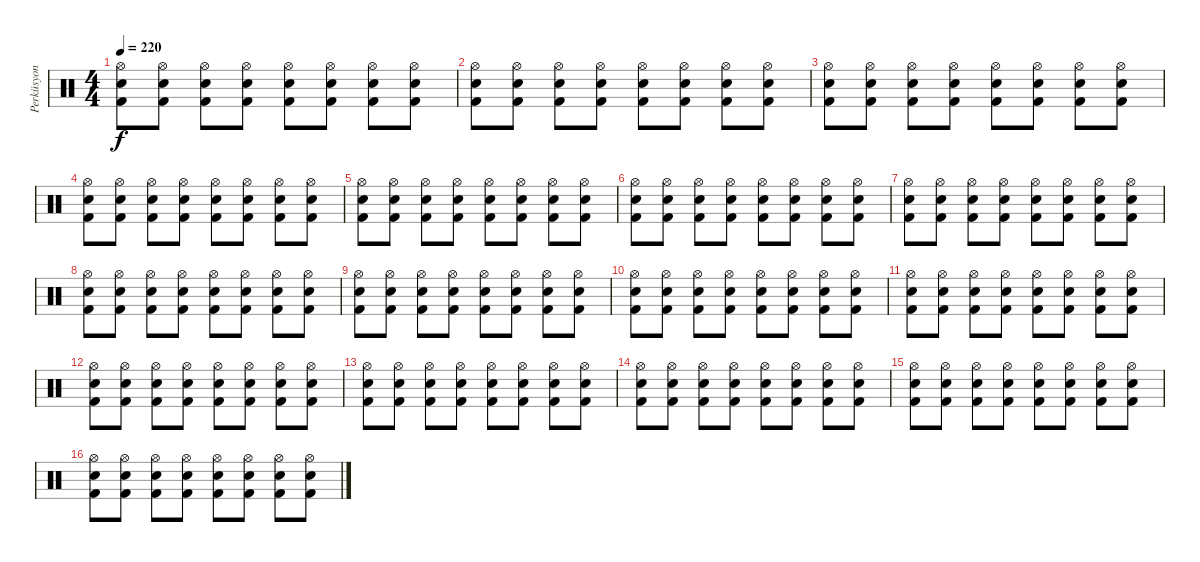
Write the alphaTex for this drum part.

\track ("Perküsyon" "Perküsyon") {instrument percussion}
\staff {score}
\articulation defaults
\ts (4 4)
\tempo 220
\clef neutral
\ks c
("Hi-Hat (open)" "Electric Snare (hit)" "Kick (hit) 2").8{dy f} ("Hi-Hat (open)" "Electric Snare (hit)" "Kick (hit) 2").8 ("Hi-Hat (open)" "Electric Snare (hit)" "Kick (hit) 2").8 ("Hi-Hat (open)" "Electric Snare (hit)" "Kick (hit) 2").8 ("Hi-Hat (open)" "Electric Snare (hit)" "Kick (hit) 2").8 ("Hi-Hat (open)" "Electric Snare (hit)" "Kick (hit) 2").8 ("Hi-Hat (open)" "Electric Snare (hit)" "Kick (hit) 2").8 ("Hi-Hat (open)" "Electric Snare (hit)" "Kick (hit) 2").8 |
("Hi-Hat (open)" "Electric Snare (hit)" "Kick (hit) 2").8 ("Hi-Hat (open)" "Electric Snare (hit)" "Kick (hit) 2").8 ("Hi-Hat (open)" "Electric Snare (hit)" "Kick (hit) 2").8 ("Hi-Hat (open)" "Electric Snare (hit)" "Kick (hit) 2").8 ("Hi-Hat (open)" "Electric Snare (hit)" "Kick (hit) 2").8 ("Hi-Hat (open)" "Electric Snare (hit)" "Kick (hit) 2").8 ("Hi-Hat (open)" "Electric Snare (hit)" "Kick (hit) 2").8 ("Hi-Hat (open)" "Electric Snare (hit)" "Kick (hit) 2").8 |
("Hi-Hat (open)" "Electric Snare (hit)" "Kick (hit) 2").8 ("Hi-Hat (open)" "Electric Snare (hit)" "Kick (hit) 2").8 ("Hi-Hat (open)" "Electric Snare (hit)" "Kick (hit) 2").8 ("Hi-Hat (open)" "Electric Snare (hit)" "Kick (hit) 2").8 ("Hi-Hat (open)" "Electric Snare (hit)" "Kick (hit) 2").8 ("Hi-Hat (open)" "Electric Snare (hit)" "Kick (hit) 2").8 ("Hi-Hat (open)" "Electric Snare (hit)" "Kick (hit) 2").8 ("Hi-Hat (open)" "Electric Snare (hit)" "Kick (hit) 2").8 |
("Hi-Hat (open)" "Electric Snare (hit)" "Kick (hit) 2").8 ("Hi-Hat (open)" "Electric Snare (hit)" "Kick (hit) 2").8 ("Hi-Hat (open)" "Electric Snare (hit)" "Kick (hit) 2").8 ("Hi-Hat (open)" "Electric Snare (hit)" "Kick (hit) 2").8 ("Hi-Hat (open)" "Electric Snare (hit)" "Kick (hit) 2").8 ("Hi-Hat (open)" "Electric Snare (hit)" "Kick (hit) 2").8 ("Hi-Hat (open)" "Electric Snare (hit)" "Kick (hit) 2").8 ("Hi-Hat (open)" "Electric Snare (hit)" "Kick (hit) 2").8 |
("Hi-Hat (open)" "Electric Snare (hit)" "Kick (hit) 2").8 ("Hi-Hat (open)" "Electric Snare (hit)" "Kick (hit) 2").8 ("Hi-Hat (open)" "Electric Snare (hit)" "Kick (hit) 2").8 ("Hi-Hat (open)" "Electric Snare (hit)" "Kick (hit) 2").8 ("Hi-Hat (open)" "Electric Snare (hit)" "Kick (hit) 2").8 ("Hi-Hat (open)" "Electric Snare (hit)" "Kick (hit) 2").8 ("Hi-Hat (open)" "Electric Snare (hit)" "Kick (hit) 2").8 ("Hi-Hat (open)" "Electric Snare (hit)" "Kick (hit) 2").8 |
("Hi-Hat (open)" "Electric Snare (hit)" "Kick (hit) 2").8 ("Hi-Hat (open)" "Electric Snare (hit)" "Kick (hit) 2").8 ("Hi-Hat (open)" "Electric Snare (hit)" "Kick (hit) 2").8 ("Hi-Hat (open)" "Electric Snare (hit)" "Kick (hit) 2").8 ("Hi-Hat (open)" "Electric Snare (hit)" "Kick (hit) 2").8 ("Hi-Hat (open)" "Electric Snare (hit)" "Kick (hit) 2").8 ("Hi-Hat (open)" "Electric Snare (hit)" "Kick (hit) 2").8 ("Hi-Hat (open)" "Electric Snare (hit)" "Kick (hit) 2").8 |
("Hi-Hat (open)" "Electric Snare (hit)" "Kick (hit) 2").8 ("Hi-Hat (open)" "Electric Snare (hit)" "Kick (hit) 2").8 ("Hi-Hat (open)" "Electric Snare (hit)" "Kick (hit) 2").8 ("Hi-Hat (open)" "Electric Snare (hit)" "Kick (hit) 2").8 ("Hi-Hat (open)" "Electric Snare (hit)" "Kick (hit) 2").8 ("Hi-Hat (open)" "Electric Snare (hit)" "Kick (hit) 2").8 ("Hi-Hat (open)" "Electric Snare (hit)" "Kick (hit) 2").8 ("Hi-Hat (open)" "Electric Snare (hit)" "Kick (hit) 2").8 |
("Hi-Hat (open)" "Electric Snare (hit)" "Kick (hit) 2").8 ("Hi-Hat (open)" "Electric Snare (hit)" "Kick (hit) 2").8 ("Hi-Hat (open)" "Electric Snare (hit)" "Kick (hit) 2").8 ("Hi-Hat (open)" "Electric Snare (hit)" "Kick (hit) 2").8 ("Hi-Hat (open)" "Electric Snare (hit)" "Kick (hit) 2").8 ("Hi-Hat (open)" "Electric Snare (hit)" "Kick (hit) 2").8 ("Hi-Hat (open)" "Electric Snare (hit)" "Kick (hit) 2").8 ("Hi-Hat (open)" "Electric Snare (hit)" "Kick (hit) 2").8 |
("Hi-Hat (open)" "Electric Snare (hit)" "Kick (hit) 2").8 ("Hi-Hat (open)" "Electric Snare (hit)" "Kick (hit) 2").8 ("Hi-Hat (open)" "Electric Snare (hit)" "Kick (hit) 2").8 ("Hi-Hat (open)" "Electric Snare (hit)" "Kick (hit) 2").8 ("Hi-Hat (open)" "Electric Snare (hit)" "Kick (hit) 2").8 ("Hi-Hat (open)" "Electric Snare (hit)" "Kick (hit) 2").8 ("Hi-Hat (open)" "Electric Snare (hit)" "Kick (hit) 2").8 ("Hi-Hat (open)" "Electric Snare (hit)" "Kick (hit) 2").8 |
("Hi-Hat (open)" "Electric Snare (hit)" "Kick (hit) 2").8 ("Hi-Hat (open)" "Electric Snare (hit)" "Kick (hit) 2").8 ("Hi-Hat (open)" "Electric Snare (hit)" "Kick (hit) 2").8 ("Hi-Hat (open)" "Electric Snare (hit)" "Kick (hit) 2").8 ("Hi-Hat (open)" "Electric Snare (hit)" "Kick (hit) 2").8 ("Hi-Hat (open)" "Electric Snare (hit)" "Kick (hit) 2").8 ("Hi-Hat (open)" "Electric Snare (hit)" "Kick (hit) 2").8 ("Hi-Hat (open)" "Electric Snare (hit)" "Kick (hit) 2").8 |
("Hi-Hat (open)" "Electric Snare (hit)" "Kick (hit) 2").8 ("Hi-Hat (open)" "Electric Snare (hit)" "Kick (hit) 2").8 ("Hi-Hat (open)" "Electric Snare (hit)" "Kick (hit) 2").8 ("Hi-Hat (open)" "Electric Snare (hit)" "Kick (hit) 2").8 ("Hi-Hat (open)" "Electric Snare (hit)" "Kick (hit) 2").8 ("Hi-Hat (open)" "Electric Snare (hit)" "Kick (hit) 2").8 ("Hi-Hat (open)" "Electric Snare (hit)" "Kick (hit) 2").8 ("Hi-Hat (open)" "Electric Snare (hit)" "Kick (hit) 2").8 |
("Hi-Hat (open)" "Electric Snare (hit)" "Kick (hit) 2").8 ("Hi-Hat (open)" "Electric Snare (hit)" "Kick (hit) 2").8 ("Hi-Hat (open)" "Electric Snare (hit)" "Kick (hit) 2").8 ("Hi-Hat (open)" "Electric Snare (hit)" "Kick (hit) 2").8 ("Hi-Hat (open)" "Electric Snare (hit)" "Kick (hit) 2").8 ("Hi-Hat (open)" "Electric Snare (hit)" "Kick (hit) 2").8 ("Hi-Hat (open)" "Electric Snare (hit)" "Kick (hit) 2").8 ("Hi-Hat (open)" "Electric Snare (hit)" "Kick (hit) 2").8 |
("Hi-Hat (open)" "Electric Snare (hit)" "Kick (hit) 2").8 ("Hi-Hat (open)" "Electric Snare (hit)" "Kick (hit) 2").8 ("Hi-Hat (open)" "Electric Snare (hit)" "Kick (hit) 2").8 ("Hi-Hat (open)" "Electric Snare (hit)" "Kick (hit) 2").8 ("Hi-Hat (open)" "Electric Snare (hit)" "Kick (hit) 2").8 ("Hi-Hat (open)" "Electric Snare (hit)" "Kick (hit) 2").8 ("Hi-Hat (open)" "Electric Snare (hit)" "Kick (hit) 2").8 ("Hi-Hat (open)" "Electric Snare (hit)" "Kick (hit) 2").8 |
("Hi-Hat (open)" "Electric Snare (hit)" "Kick (hit) 2").8 ("Hi-Hat (open)" "Electric Snare (hit)" "Kick (hit) 2").8 ("Hi-Hat (open)" "Electric Snare (hit)" "Kick (hit) 2").8 ("Hi-Hat (open)" "Electric Snare (hit)" "Kick (hit) 2").8 ("Hi-Hat (open)" "Electric Snare (hit)" "Kick (hit) 2").8 ("Hi-Hat (open)" "Electric Snare (hit)" "Kick (hit) 2").8 ("Hi-Hat (open)" "Electric Snare (hit)" "Kick (hit) 2").8 ("Hi-Hat (open)" "Electric Snare (hit)" "Kick (hit) 2").8 |
("Hi-Hat (open)" "Electric Snare (hit)" "Kick (hit) 2").8 ("Hi-Hat (open)" "Electric Snare (hit)" "Kick (hit) 2").8 ("Hi-Hat (open)" "Electric Snare (hit)" "Kick (hit) 2").8 ("Hi-Hat (open)" "Electric Snare (hit)" "Kick (hit) 2").8 ("Hi-Hat (open)" "Electric Snare (hit)" "Kick (hit) 2").8 ("Hi-Hat (open)" "Electric Snare (hit)" "Kick (hit) 2").8 ("Hi-Hat (open)" "Electric Snare (hit)" "Kick (hit) 2").8 ("Hi-Hat (open)" "Electric Snare (hit)" "Kick (hit) 2").8 |
("Hi-Hat (open)" "Electric Snare (hit)" "Kick (hit) 2").8 ("Hi-Hat (open)" "Electric Snare (hit)" "Kick (hit) 2").8 ("Hi-Hat (open)" "Electric Snare (hit)" "Kick (hit) 2").8 ("Hi-Hat (open)" "Electric Snare (hit)" "Kick (hit) 2").8 ("Hi-Hat (open)" "Electric Snare (hit)" "Kick (hit) 2").8 ("Hi-Hat (open)" "Electric Snare (hit)" "Kick (hit) 2").8 ("Hi-Hat (open)" "Electric Snare (hit)" "Kick (hit) 2").8 ("Hi-Hat (open)" "Electric Snare (hit)" "Kick (hit) 2").8
